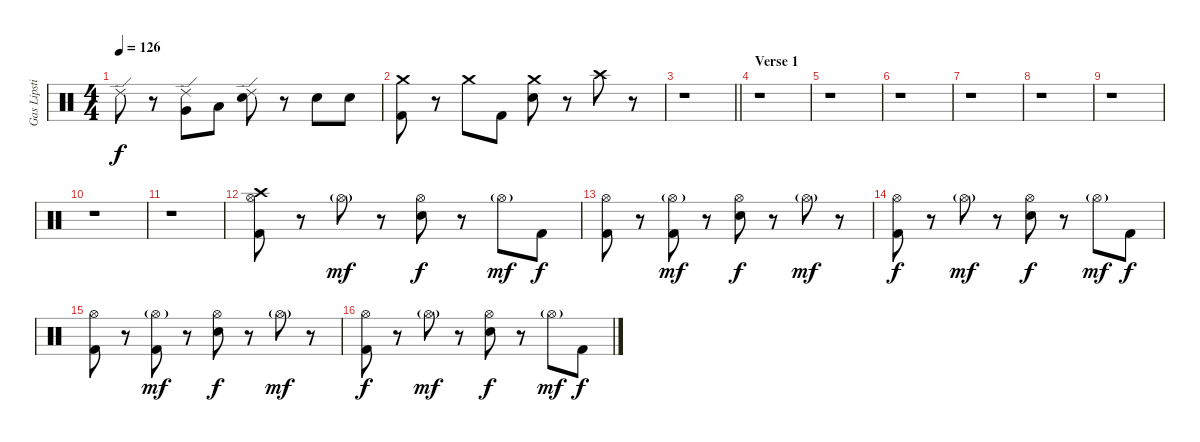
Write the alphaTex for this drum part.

\track ("Gas Lipstick (Drums)" "Gas Lipsti") {instrument percussion}
\staff {score}
\articulation defaults
\ts (4 4)
\tempo 126
\clef neutral
\ks c "Ride (edge) 2".8{dy f}
r.8 ("Ride (edge) 2" "Very Low Tom (hit)").8 "Low Floor Tom (hit)".8 ("Ride (edge) 2" "Snare (hit) 2").8 r.8 "Snare (hit) 2".8 "Snare (hit) 2".8 |
("Crash medium (hit)" "Kick (hit) 2").8 r.8 "Crash medium (hit)".8 "Kick (hit) 2".8 ("Crash medium (hit)" "Snare (hit) 2").8 r.8 "Crash high (hit)".8 r.8 |
\barLineRight lightlight
r.1 |
\section ("" "Verse 1")
r.1 |
r.1 |
r.1 |
r.1 |
r.1 |
r.1 |
r.1 |
r.1 |
("Crash high (hit)" "Hi-Hat (open)" "Kick (hit) 2").8 r.8 "Hi-Hat (open)"{g}.8{dy mf} r.8 ("Hi-Hat (open)" "Snare (hit) 2").8{dy f} r.8 "Hi-Hat (open)"{g}.8{dy mf} "Kick (hit) 2".8{dy f} |
("Hi-Hat (open)" "Kick (hit) 2").8 r.8 ("Hi-Hat (open)"{g} "Kick (hit) 2").8{dy mf} r.8 ("Hi-Hat (open)" "Snare (hit) 2").8{dy f} r.8 "Hi-Hat (open)"{g}.8{dy mf} r.8 |
("Hi-Hat (open)" "Kick (hit) 2").8{dy f} r.8 "Hi-Hat (open)"{g}.8{dy mf} r.8 ("Hi-Hat (open)" "Snare (hit) 2").8{dy f} r.8 "Hi-Hat (open)"{g}.8{dy mf} "Kick (hit) 2".8{dy f} |
("Hi-Hat (open)" "Kick (hit) 2").8 r.8 ("Hi-Hat (open)"{g} "Kick (hit) 2").8{dy mf} r.8 ("Hi-Hat (open)" "Snare (hit) 2").8{dy f} r.8 "Hi-Hat (open)"{g}.8{dy mf} r.8 |
("Hi-Hat (open)" "Kick (hit) 2").8{dy f} r.8 "Hi-Hat (open)"{g}.8{dy mf} r.8 ("Hi-Hat (open)" "Snare (hit) 2").8{dy f} r.8 "Hi-Hat (open)"{g}.8{dy mf} "Kick (hit) 2".8{dy f}
